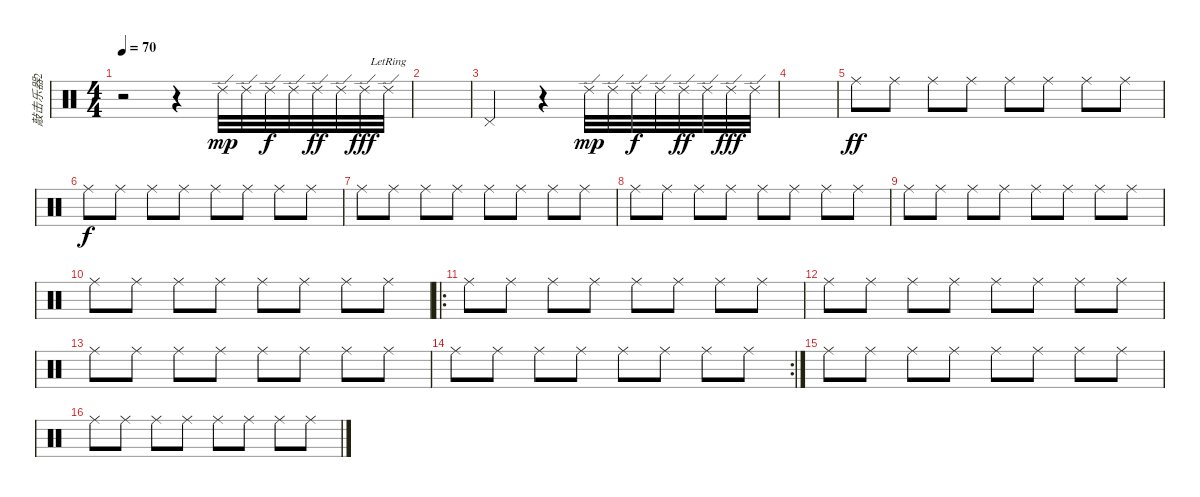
\track ("敲击乐器2" "敲击乐器2") {instrument percussion}
\staff {score}
\articulation defaults
\ts (4 4)
\tempo 70
\clef neutral
\ks c
r.2{dy mp} r.4 "Ride (edge) 2".32 "Ride (edge) 2".32 "Ride (edge) 2".32{dy f} "Ride (edge) 2".32 "Ride (edge) 2".32{dy ff} "Ride (edge) 2".32 "Ride (edge) 2".32{dy fff} "Ride (edge) 2"{lr}.32 |
|
"Pedal Hi-Hat (hit)".2 r.4 "Ride (edge) 2".32{dy mp} "Ride (edge) 2".32 "Ride (edge) 2".32{dy f} "Ride (edge) 2".32 "Ride (edge) 2".32{dy ff} "Ride (edge) 2".32 "Ride (edge) 2".32{dy fff} "Ride (edge) 2".32 |
|
"Ride (middle)".8{dy ff} "Ride (middle)".8 "Ride (middle)".8 "Ride (middle)".8 "Ride (middle)".8 "Ride (middle)".8 "Ride (middle)".8 "Ride (middle)".8 |
"Ride (middle)".8{dy f} "Ride (middle)".8 "Ride (middle)".8 "Ride (middle)".8 "Ride (middle)".8 "Ride (middle)".8 "Ride (middle)".8 "Ride (middle)".8 |
"Ride (middle)".8 "Ride (middle)".8 "Ride (middle)".8 "Ride (middle)".8 "Ride (middle)".8 "Ride (middle)".8 "Ride (middle)".8 "Ride (middle)".8 |
"Ride (middle)".8 "Ride (middle)".8 "Ride (middle)".8 "Ride (middle)".8 "Ride (middle)".8 "Ride (middle)".8 "Ride (middle)".8 "Ride (middle)".8 |
"Ride (middle)".8 "Ride (middle)".8 "Ride (middle)".8 "Ride (middle)".8 "Ride (middle)".8 "Ride (middle)".8 "Ride (middle)".8 "Ride (middle)".8 |
"Ride (middle)".8 "Ride (middle)".8 "Ride (middle)".8 "Ride (middle)".8 "Ride (middle)".8 "Ride (middle)".8 "Ride (middle)".8 "Ride (middle)".8 |
\ro "Ride (middle)".8 "Ride (middle)".8 "Ride (middle)".8 "Ride (middle)".8 "Ride (middle)".8 "Ride (middle)".8 "Ride (middle)".8 "Ride (middle)".8
|
"Ride (middle)".8 "Ride (middle)".8 "Ride (middle)".8 "Ride (middle)".8 "Ride (middle)".8 "Ride (middle)".8 "Ride (middle)".8 "Ride (middle)".8 |
"Ride (middle)".8 "Ride (middle)".8 "Ride (middle)".8 "Ride (middle)".8 "Ride (middle)".8 "Ride (middle)".8 "Ride (middle)".8 "Ride (middle)".8 |
\rc 2 "Ride (middle)".8 "Ride (middle)".8 "Ride (middle)".8 "Ride (middle)".8 "Ride (middle)".8 "Ride (middle)".8 "Ride (middle)".8 "Ride (middle)".8
|
"Ride (middle)".8 "Ride (middle)".8 "Ride (middle)".8 "Ride (middle)".8 "Ride (middle)".8 "Ride (middle)".8 "Ride (middle)".8 "Ride (middle)".8 |
"Ride (middle)".8 "Ride (middle)".8 "Ride (middle)".8 "Ride (middle)".8 "Ride (middle)".8 "Ride (middle)".8 "Ride (middle)".8 "Ride (middle)".8
